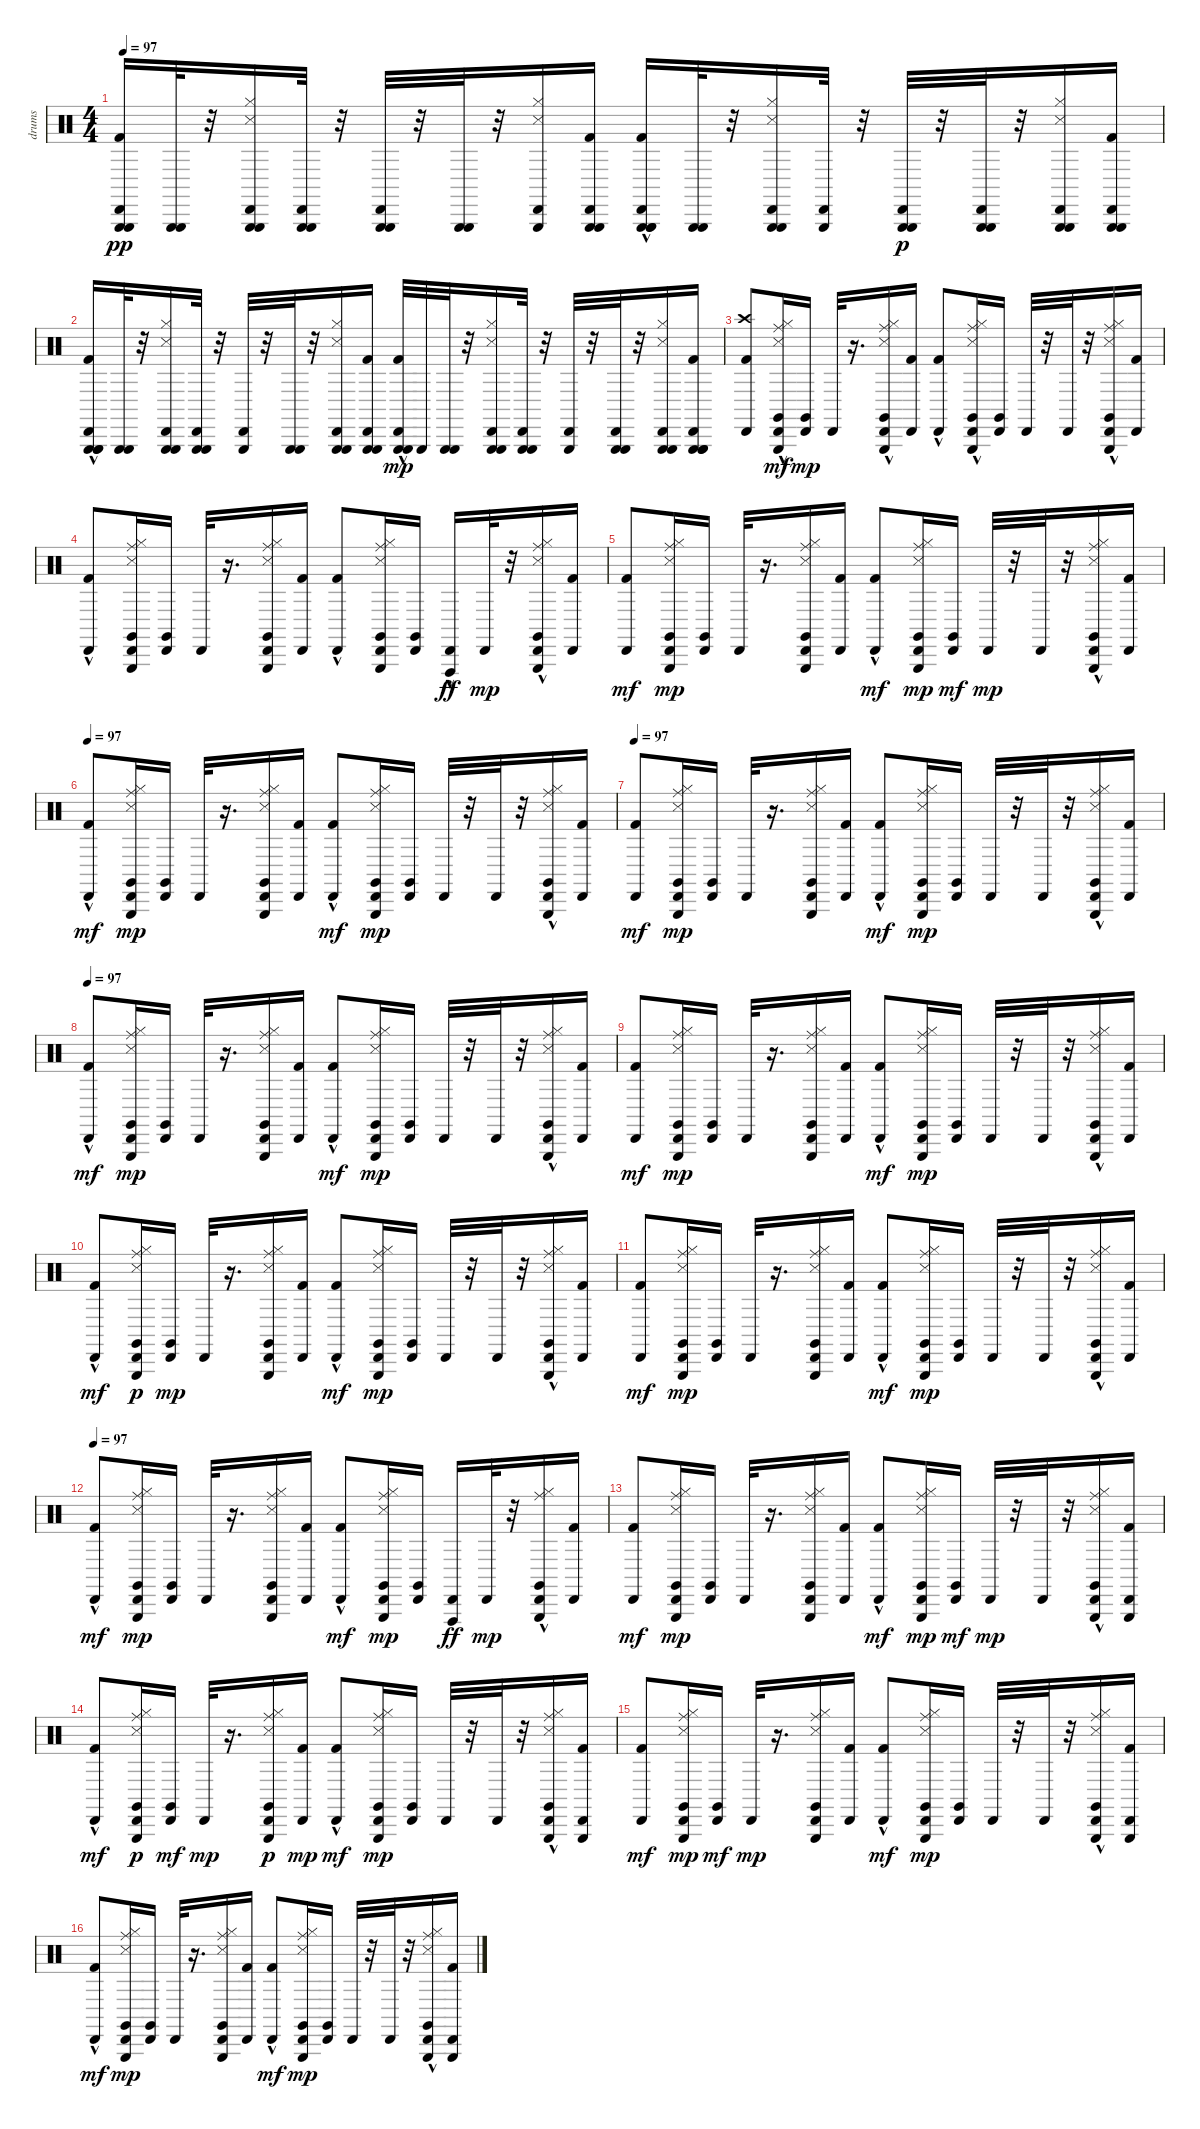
\track ("drums" "drums") {instrument percussion}
\staff {score}
\articulation defaults
\ts (4 4)
\tempo 97
\clef neutral
\ks c
("Kick (hit) 2" "Cabasa (hit)" "Triangle (hit)" "Triangle (hit)").16{dy pp} ("Triangle (hit)" "Triangle (hit)").32 r.32 ("Snare (side stick) 3" "Hi-Hat (closed)" "Cabasa (hit)" "Triangle (hit)" "Triangle (hit)").16 ("Cabasa (hit)" "Triangle (hit)" "Triangle (hit)").32 r.32 ("Cabasa (hit)" "Triangle (hit)" "Triangle (hit)").32 r.32 ("Triangle (hit)" "Triangle (hit)").32 r.32 ("Snare (side stick) 3" "Hi-Hat (closed)" "Cabasa (hit)" "Triangle (hit)").16 ("Kick (hit) 2" "Cabasa (hit)" "Triangle (hit)" "Triangle (hit)").16 ("Kick (hit) 2"{hac} "Cabasa (hit)" "Triangle (hit)" "Triangle (hit)" "Triangle (hit)").16 ("Triangle (hit)" "Triangle (hit)").32 r.32 ("Snare (side stick) 3" "Hi-Hat (closed)" "Cabasa (hit)" "Triangle (hit)" "Triangle (hit)").16 ("Cabasa (hit)" "Triangle (hit)").32 r.32 ("Cabasa (hit)" "Triangle (hit)" "Triangle (hit)").32{dy p} r.32 ("Cabasa (hit)" "Triangle (hit)" "Triangle (hit)").32 r.32 ("Snare (side stick) 3" "Hi-Hat (closed)" "Cabasa (hit)" "Triangle (hit)" "Triangle (hit)").16 ("Kick (hit) 2" "Cabasa (hit)" "Triangle (hit)" "Triangle (hit)").16 |
("Kick (hit) 2"{hac} "Cabasa (hit)" "Triangle (hit)" "Triangle (hit)" "Triangle (hit)").16 ("Triangle (hit)" "Triangle (hit)").32 r.32 ("Snare (side stick) 3" "Hi-Hat (closed)" "Cabasa (hit)" "Triangle (hit)" "Triangle (hit)").16 ("Cabasa (hit)" "Triangle (hit)" "Triangle (hit)").32 r.32 ("Cabasa (hit)" "Triangle (hit)").32 r.32 ("Triangle (hit)" "Triangle (hit)").32 r.32 ("Snare (side stick) 3" "Hi-Hat (closed)" "Cabasa (hit)" "Triangle (hit)" "Triangle (hit)").16 ("Kick (hit) 2" "Cabasa (hit)" "Triangle (hit)" "Triangle (hit)").16 ("Kick (hit) 2"{hac} "Cabasa (hit)" "Triangle (hit)" "Triangle (hit)").32{dy mp} "Triangle (hit)".32 ("Triangle (hit)" "Triangle (hit)").32 r.32 ("Snare (side stick) 3" "Hi-Hat (closed)" "Cabasa (hit)" "Triangle (hit)" "Triangle (hit)").16 ("Cabasa (hit)" "Triangle (hit)" "Triangle (hit)").32 r.32 ("Cabasa (hit)" "Triangle (hit)").32 r.32 ("Cabasa (hit)" "Triangle (hit)" "Triangle (hit)").32 r.32 ("Snare (side stick) 3" "Hi-Hat (closed)" "Cabasa (hit)" "Triangle (hit)" "Triangle (hit)").16 ("Kick (hit) 2" "Cabasa (hit)" "Triangle (hit)" "Triangle (hit)" "Triangle (hit)").16 |
("Kick (hit) 2" "Cabasa (hit)" "Crash high (hit)").8 ("Snare (side stick) 3" "Hi-Hat (closed)" "Cabasa (hit)" "Claves (hit)" "Ride (middle)" "Triangle (hit)"{hac}).16{dy mf} ("Cabasa (hit)" "Claves (hit)").16{dy mp} "Cabasa (hit)".32 r.16{d} ("Snare (side stick) 3" "Hi-Hat (closed)" "Cabasa (hit)" "Claves (hit)" "Ride (middle)" "Triangle (hit)"{hac}).16 ("Kick (hit) 2" "Cabasa (hit)").16 ("Kick (hit) 2"{hac} "Cabasa (hit)").8 ("Snare (side stick) 3" "Hi-Hat (closed)" "Cabasa (hit)" "Claves (hit)" "Ride (middle)" "Triangle (hit)"{hac}).16 ("Cabasa (hit)" "Claves (hit)").16 "Cabasa (hit)".32 r.32 "Cabasa (hit)".32 r.32 ("Snare (side stick) 3" "Hi-Hat (closed)" "Cabasa (hit)" "Claves (hit)" "Ride (middle)"{hac} "Triangle (hit)").16 ("Kick (hit) 2" "Cabasa (hit)").16 |
("Kick (hit) 2"{hac} "Cabasa (hit)").8 ("Snare (side stick) 3" "Hi-Hat (closed)" "Cabasa (hit)" "Claves (hit)" "Ride (middle)" "Triangle (hit)").16 ("Cabasa (hit)" "Claves (hit)").16 "Cabasa (hit)".32 r.16{d} ("Snare (side stick) 3" "Hi-Hat (closed)" "Cabasa (hit)" "Claves (hit)" "Ride (middle)" "Triangle (hit)").16 ("Kick (hit) 2" "Cabasa (hit)").16 ("Kick (hit) 2"{hac} "Cabasa (hit)").8 ("Snare (side stick) 3" "Hi-Hat (closed)" "Cabasa (hit)" "Claves (hit)" "Ride (middle)" "Triangle (hit)").16 ("Cabasa (hit)" "Claves (hit)").16 ("Cabasa (hit)" "Vibraslap (hit)"{hac}).16{dy ff} "Cabasa (hit)".32{dy mp} r.32 ("Snare (side stick) 3" "Hi-Hat (closed)" "Cabasa (hit)" "Claves (hit)" "Ride (middle)"{hac} "Triangle (hit)").16 ("Kick (hit) 2" "Cabasa (hit)").16 |
("Kick (hit) 2" "Cabasa (hit)").8{dy mf} ("Snare (side stick) 3" "Hi-Hat (closed)" "Cabasa (hit)" "Claves (hit)" "Ride (middle)" "Triangle (hit)").16{dy mp} ("Cabasa (hit)" "Claves (hit)").16 "Cabasa (hit)".32 r.16{d} ("Snare (side stick) 3" "Hi-Hat (closed)" "Cabasa (hit)" "Claves (hit)" "Ride (middle)" "Triangle (hit)").16 ("Kick (hit) 2" "Cabasa (hit)").16 ("Kick (hit) 2"{hac} "Cabasa (hit)").8{dy mf} ("Snare (side stick) 3" "Hi-Hat (closed)" "Cabasa (hit)" "Claves (hit)" "Ride (middle)" "Triangle (hit)").16{dy mp} ("Cabasa (hit)" "Claves (hit)").16{dy mf} "Cabasa (hit)".32{dy mp} r.32 "Cabasa (hit)".32 r.32 ("Snare (side stick) 3" "Hi-Hat (closed)" "Cabasa (hit)" "Claves (hit)" "Ride (middle)"{hac} "Triangle (hit)").16 ("Kick (hit) 2" "Cabasa (hit)").16 |
\tempo 97
("Kick (hit) 2"{hac} "Cabasa (hit)").8{dy mf} ("Snare (side stick) 3" "Hi-Hat (closed)" "Cabasa (hit)" "Claves (hit)" "Ride (middle)" "Triangle (hit)").16{dy mp} ("Cabasa (hit)" "Claves (hit)").16 "Cabasa (hit)".32 r.16{d} ("Snare (side stick) 3" "Hi-Hat (closed)" "Cabasa (hit)" "Claves (hit)" "Ride (middle)" "Triangle (hit)").16 ("Kick (hit) 2" "Cabasa (hit)").16 ("Kick (hit) 2"{hac} "Cabasa (hit)").8{dy mf} ("Snare (side stick) 3" "Hi-Hat (closed)" "Cabasa (hit)" "Claves (hit)" "Ride (middle)" "Triangle (hit)").16{dy mp} ("Cabasa (hit)" "Claves (hit)").16 "Cabasa (hit)".32 r.32 "Cabasa (hit)".32 r.32 ("Snare (side stick) 3" "Hi-Hat (closed)" "Cabasa (hit)" "Claves (hit)" "Ride (middle)"{hac} "Triangle (hit)").16 ("Kick (hit) 2" "Cabasa (hit)").16 |
\tempo 97
("Kick (hit) 2" "Cabasa (hit)").8{dy mf} ("Snare (side stick) 3" "Hi-Hat (closed)" "Cabasa (hit)" "Claves (hit)" "Ride (middle)" "Triangle (hit)").16{dy mp} ("Cabasa (hit)" "Claves (hit)").16 "Cabasa (hit)".32 r.16{d} ("Snare (side stick) 3" "Hi-Hat (closed)" "Cabasa (hit)" "Claves (hit)" "Ride (middle)" "Triangle (hit)").16 ("Kick (hit) 2" "Cabasa (hit)").16 ("Kick (hit) 2"{hac} "Cabasa (hit)").8{dy mf} ("Snare (side stick) 3" "Hi-Hat (closed)" "Cabasa (hit)" "Claves (hit)" "Ride (middle)" "Triangle (hit)").16{dy mp} ("Cabasa (hit)" "Claves (hit)").16 "Cabasa (hit)".32 r.32 "Cabasa (hit)".32 r.32 ("Snare (side stick) 3" "Hi-Hat (closed)" "Cabasa (hit)" "Claves (hit)" "Ride (middle)"{hac} "Triangle (hit)").16 ("Kick (hit) 2" "Cabasa (hit)").16 |
\tempo 97
("Kick (hit) 2"{hac} "Cabasa (hit)").8{dy mf} ("Snare (side stick) 3" "Hi-Hat (closed)" "Cabasa (hit)" "Claves (hit)" "Ride (middle)" "Triangle (hit)").16{dy mp} ("Cabasa (hit)" "Claves (hit)").16 "Cabasa (hit)".32 r.16{d} ("Snare (side stick) 3" "Hi-Hat (closed)" "Cabasa (hit)" "Claves (hit)" "Ride (middle)" "Triangle (hit)").16 ("Kick (hit) 2" "Cabasa (hit)").16 ("Kick (hit) 2"{hac} "Cabasa (hit)").8{dy mf} ("Snare (side stick) 3" "Hi-Hat (closed)" "Cabasa (hit)" "Claves (hit)" "Ride (middle)" "Triangle (hit)").16{dy mp} ("Cabasa (hit)" "Claves (hit)").16 "Cabasa (hit)".32 r.32 "Cabasa (hit)".32 r.32 ("Snare (side stick) 3" "Hi-Hat (closed)" "Cabasa (hit)" "Claves (hit)" "Ride (middle)"{hac} "Triangle (hit)").16 ("Kick (hit) 2" "Cabasa (hit)").16 |
("Kick (hit) 2" "Cabasa (hit)").8{dy mf} ("Snare (side stick) 3" "Hi-Hat (closed)" "Cabasa (hit)" "Claves (hit)" "Ride (middle)" "Triangle (hit)").16{dy mp} ("Cabasa (hit)" "Claves (hit)").16 "Cabasa (hit)".32 r.16{d} ("Snare (side stick) 3" "Hi-Hat (closed)" "Cabasa (hit)" "Claves (hit)" "Ride (middle)" "Triangle (hit)").16 ("Kick (hit) 2" "Cabasa (hit)").16 ("Kick (hit) 2"{hac} "Cabasa (hit)").8{dy mf} ("Snare (side stick) 3" "Hi-Hat (closed)" "Cabasa (hit)" "Claves (hit)" "Ride (middle)" "Triangle (hit)").16{dy mp} ("Cabasa (hit)" "Claves (hit)").16 "Cabasa (hit)".32 r.32 "Cabasa (hit)".32 r.32 ("Snare (side stick) 3" "Hi-Hat (closed)" "Cabasa (hit)" "Claves (hit)" "Ride (middle)"{hac} "Triangle (hit)").16 ("Kick (hit) 2" "Cabasa (hit)").16 |
("Kick (hit) 2"{hac} "Cabasa (hit)").8{dy mf} ("Snare (side stick) 3" "Hi-Hat (closed)" "Cabasa (hit)" "Claves (hit)" "Ride (middle)" "Triangle (hit)").16{dy p} ("Cabasa (hit)" "Claves (hit)").16{dy mp} "Cabasa (hit)".32 r.16{d} ("Snare (side stick) 3" "Hi-Hat (closed)" "Cabasa (hit)" "Claves (hit)" "Ride (middle)" "Triangle (hit)").16 ("Kick (hit) 2" "Cabasa (hit)").16 ("Kick (hit) 2"{hac} "Cabasa (hit)").8{dy mf} ("Snare (side stick) 3" "Hi-Hat (closed)" "Cabasa (hit)" "Claves (hit)" "Ride (middle)" "Triangle (hit)").16{dy mp} ("Cabasa (hit)" "Claves (hit)").16 "Cabasa (hit)".32 r.32 "Cabasa (hit)".32 r.32 ("Snare (side stick) 3" "Hi-Hat (closed)" "Cabasa (hit)" "Claves (hit)" "Ride (middle)"{hac} "Triangle (hit)").16 ("Kick (hit) 2" "Cabasa (hit)").16 |
("Kick (hit) 2" "Cabasa (hit)").8{dy mf} ("Snare (side stick) 3" "Hi-Hat (closed)" "Cabasa (hit)" "Claves (hit)" "Ride (middle)" "Triangle (hit)").16{dy mp} ("Cabasa (hit)" "Claves (hit)").16 "Cabasa (hit)".32 r.16{d} ("Snare (side stick) 3" "Hi-Hat (closed)" "Cabasa (hit)" "Claves (hit)" "Ride (middle)" "Triangle (hit)").16 ("Kick (hit) 2" "Cabasa (hit)").16 ("Kick (hit) 2"{hac} "Cabasa (hit)").8{dy mf} ("Snare (side stick) 3" "Hi-Hat (closed)" "Cabasa (hit)" "Claves (hit)" "Ride (middle)" "Triangle (hit)").16{dy mp} ("Cabasa (hit)" "Claves (hit)").16 "Cabasa (hit)".32 r.32 "Cabasa (hit)".32 r.32 ("Snare (side stick) 3" "Hi-Hat (closed)" "Cabasa (hit)" "Claves (hit)" "Ride (middle)"{hac} "Triangle (hit)").16 ("Kick (hit) 2" "Cabasa (hit)").16 |
\tempo 97
("Kick (hit) 2"{hac} "Cabasa (hit)").8{dy mf} ("Snare (side stick) 3" "Hi-Hat (closed)" "Cabasa (hit)" "Claves (hit)" "Ride (middle)" "Triangle (hit)").16{dy mp} ("Cabasa (hit)" "Claves (hit)").16 "Cabasa (hit)".32 r.16{d} ("Snare (side stick) 3" "Hi-Hat (closed)" "Cabasa (hit)" "Claves (hit)" "Ride (middle)" "Triangle (hit)").16 ("Kick (hit) 2" "Cabasa (hit)").16 ("Kick (hit) 2"{hac} "Cabasa (hit)").8{dy mf} ("Snare (side stick) 3" "Hi-Hat (closed)" "Cabasa (hit)" "Claves (hit)" "Ride (middle)" "Triangle (hit)").16{dy mp} ("Cabasa (hit)" "Claves (hit)").16 ("Cabasa (hit)" "Vibraslap (hit)").16{dy ff} "Cabasa (hit)".32{dy mp} r.32 ("Hi-Hat (closed)" "Cabasa (hit)" "Claves (hit)" "Ride (middle)"{hac} "Triangle (hit)").16 ("Kick (hit) 2" "Cabasa (hit)").16 |
("Kick (hit) 2" "Cabasa (hit)").8{dy mf} ("Snare (side stick) 3" "Hi-Hat (closed)" "Cabasa (hit)" "Claves (hit)" "Ride (middle)" "Triangle (hit)").16{dy mp} ("Cabasa (hit)" "Claves (hit)").16 "Cabasa (hit)".32 r.16{d} ("Snare (side stick) 3" "Hi-Hat (closed)" "Cabasa (hit)" "Claves (hit)" "Ride (middle)" "Triangle (hit)").16 ("Kick (hit) 2" "Cabasa (hit)").16 ("Kick (hit) 2"{hac} "Cabasa (hit)").8{dy mf} ("Snare (side stick) 3" "Hi-Hat (closed)" "Cabasa (hit)" "Claves (hit)" "Ride (middle)" "Triangle (hit)").16{dy mp} ("Cabasa (hit)" "Claves (hit)").16{dy mf} "Cabasa (hit)".32{dy mp} r.32 "Cabasa (hit)".32 r.32 ("Snare (side stick) 3" "Hi-Hat (closed)" "Cabasa (hit)" "Claves (hit)" "Ride (middle)"{hac} "Triangle (hit)").16 ("Kick (hit) 2" "Cabasa (hit)" "Triangle (hit)").16 |
("Kick (hit) 2"{hac} "Cabasa (hit)").8{dy mf} ("Snare (side stick) 3" "Hi-Hat (closed)" "Cabasa (hit)" "Claves (hit)" "Ride (middle)" "Triangle (hit)").16{dy p} ("Cabasa (hit)" "Claves (hit)").16{dy mf} "Cabasa (hit)".32{dy mp} r.16{d} ("Snare (side stick) 3" "Hi-Hat (closed)" "Cabasa (hit)" "Claves (hit)" "Ride (middle)" "Triangle (hit)").16{dy p} ("Kick (hit) 2" "Cabasa (hit)").16{dy mp} ("Kick (hit) 2"{hac} "Cabasa (hit)").8{dy mf} ("Snare (side stick) 3" "Hi-Hat (closed)" "Cabasa (hit)" "Claves (hit)" "Ride (middle)" "Triangle (hit)").16{dy mp} ("Cabasa (hit)" "Claves (hit)").16 "Cabasa (hit)".32 r.32 "Cabasa (hit)".32 r.32 ("Snare (side stick) 3" "Hi-Hat (closed)" "Cabasa (hit)" "Claves (hit)" "Ride (middle)"{hac} "Triangle (hit)").16 ("Kick (hit) 2" "Cabasa (hit)" "Triangle (hit)").16 |
("Kick (hit) 2" "Cabasa (hit)").8{dy mf} ("Snare (side stick) 3" "Hi-Hat (closed)" "Cabasa (hit)" "Claves (hit)" "Ride (middle)" "Triangle (hit)").16{dy mp} ("Cabasa (hit)" "Claves (hit)").16{dy mf} "Cabasa (hit)".32{dy mp} r.16{d} ("Snare (side stick) 3" "Hi-Hat (closed)" "Cabasa (hit)" "Claves (hit)" "Ride (middle)" "Triangle (hit)").16 ("Kick (hit) 2" "Cabasa (hit)").16 ("Kick (hit) 2"{hac} "Cabasa (hit)").8{dy mf} ("Snare (side stick) 3" "Hi-Hat (closed)" "Cabasa (hit)" "Claves (hit)" "Ride (middle)" "Triangle (hit)").16{dy mp} ("Cabasa (hit)" "Claves (hit)").16 "Cabasa (hit)".32 r.32 "Cabasa (hit)".32 r.32 ("Snare (side stick) 3" "Hi-Hat (closed)" "Cabasa (hit)" "Claves (hit)" "Ride (middle)"{hac} "Triangle (hit)").16 ("Kick (hit) 2" "Cabasa (hit)" "Triangle (hit)").16 |
("Kick (hit) 2"{hac} "Cabasa (hit)").8{dy mf} ("Snare (side stick) 3" "Hi-Hat (closed)" "Cabasa (hit)" "Claves (hit)" "Ride (middle)" "Triangle (hit)").16{dy mp} ("Cabasa (hit)" "Claves (hit)").16 "Cabasa (hit)".32 r.16{d} ("Snare (side stick) 3" "Hi-Hat (closed)" "Cabasa (hit)" "Claves (hit)" "Ride (middle)" "Triangle (hit)").16 ("Kick (hit) 2" "Cabasa (hit)").16 ("Kick (hit) 2"{hac} "Cabasa (hit)").8{dy mf} ("Snare (side stick) 3" "Hi-Hat (closed)" "Cabasa (hit)" "Claves (hit)" "Ride (middle)" "Triangle (hit)").16{dy mp} ("Cabasa (hit)" "Claves (hit)").16 "Cabasa (hit)".32 r.32 "Cabasa (hit)".32 r.32 ("Snare (side stick) 3" "Hi-Hat (closed)" "Cabasa (hit)" "Claves (hit)" "Ride (middle)"{hac} "Triangle (hit)").16 ("Kick (hit) 2" "Cabasa (hit)" "Triangle (hit)").16
